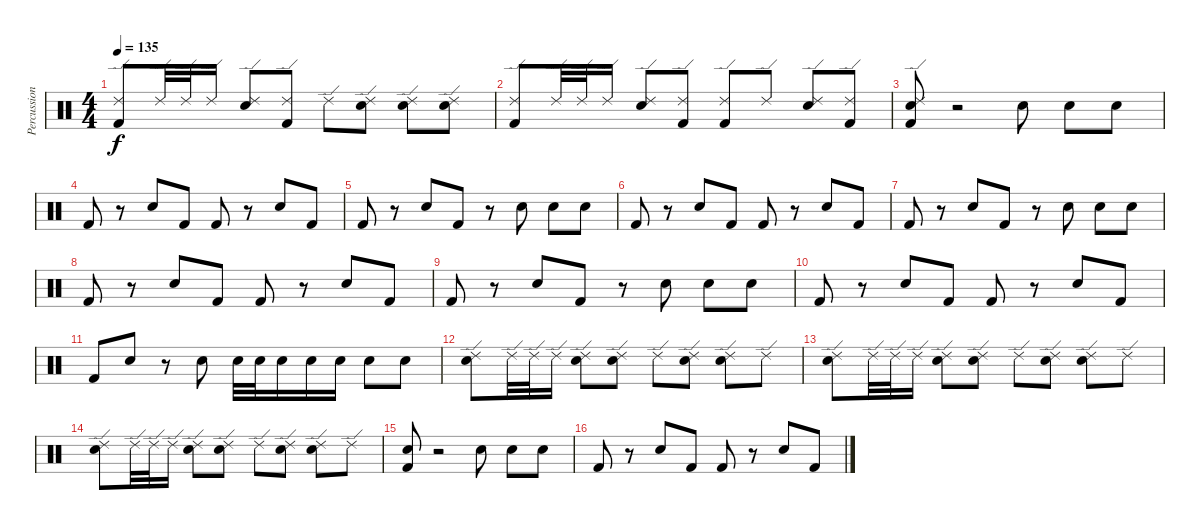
\track ("Percussions" "Percussion") {instrument percussion}
\staff {score}
\articulation defaults
\ts (4 4)
\tempo 135
\clef neutral
\ks c
("Kick (hit) 2" "Ride (edge) 2").8{dy f} "Ride (edge) 2".32 "Ride (edge) 2".32 "Ride (edge) 2".16 ("Snare (hit) 2" "Ride (edge) 2").8 ("Kick (hit) 2" "Ride (edge) 2").8 "Ride (edge) 2".8 ("Snare (hit) 2" "Ride (edge) 2").8 ("Snare (hit) 2" "Ride (edge) 2").8 ("Snare (hit) 2" "Ride (edge) 2").8 |
("Kick (hit) 2" "Ride (edge) 2").8 "Ride (edge) 2".32 "Ride (edge) 2".32 "Ride (edge) 2".16 ("Snare (hit) 2" "Ride (edge) 2").8 ("Kick (hit) 2" "Ride (edge) 2").8 ("Kick (hit) 2" "Ride (edge) 2").8 "Ride (edge) 2".8 ("Snare (hit) 2" "Ride (edge) 2").8 ("Kick (hit) 2" "Ride (edge) 2").8 |
("Snare (hit) 2" "Kick (hit) 2" "Ride (edge) 2").8 r.2 "Snare (hit) 2".8 "Snare (hit) 2".8 "Snare (hit) 2".8 |
"Kick (hit) 2".8 r.8 "Snare (hit) 2".8 "Kick (hit) 2".8 "Kick (hit) 2".8 r.8 "Snare (hit) 2".8 "Kick (hit) 2".8 |
"Kick (hit) 2".8 r.8 "Snare (hit) 2".8 "Kick (hit) 2".8 r.8 "Snare (hit) 2".8 "Snare (hit) 2".8 "Snare (hit) 2".8 |
"Kick (hit) 2".8 r.8 "Snare (hit) 2".8 "Kick (hit) 2".8 "Kick (hit) 2".8 r.8 "Snare (hit) 2".8 "Kick (hit) 2".8 |
"Kick (hit) 2".8 r.8 "Snare (hit) 2".8 "Kick (hit) 2".8 r.8 "Snare (hit) 2".8 "Snare (hit) 2".8 "Snare (hit) 2".8 |
"Kick (hit) 2".8 r.8 "Snare (hit) 2".8 "Kick (hit) 2".8 "Kick (hit) 2".8 r.8 "Snare (hit) 2".8 "Kick (hit) 2".8 |
"Kick (hit) 2".8 r.8 "Snare (hit) 2".8 "Kick (hit) 2".8 r.8 "Snare (hit) 2".8 "Snare (hit) 2".8 "Snare (hit) 2".8 |
"Kick (hit) 2".8 r.8 "Snare (hit) 2".8 "Kick (hit) 2".8 "Kick (hit) 2".8 r.8 "Snare (hit) 2".8 "Kick (hit) 2".8 |
"Kick (hit) 2".8 "Snare (hit) 2".8 r.8 "Snare (hit) 2".8 "Snare (hit) 2".32 "Snare (hit) 2".32 "Snare (hit) 2".16 "Snare (hit) 2".16 "Snare (hit) 2".16 "Snare (hit) 2".8 "Snare (hit) 2".8 |
("Snare (hit) 2" "Ride (edge) 2").8 "Ride (edge) 2".32 "Ride (edge) 2".32 "Ride (edge) 2".16 ("Snare (hit) 2" "Ride (edge) 2").8 ("Snare (hit) 2" "Ride (edge) 2").8 "Ride (edge) 2".8 ("Snare (hit) 2" "Ride (edge) 2").8 ("Snare (hit) 2" "Ride (edge) 2").8 "Ride (edge) 2".8 |
("Snare (hit) 2" "Ride (edge) 2").8 "Ride (edge) 2".32 "Ride (edge) 2".32 "Ride (edge) 2".16 ("Snare (hit) 2" "Ride (edge) 2").8 ("Snare (hit) 2" "Ride (edge) 2").8 "Ride (edge) 2".8 ("Snare (hit) 2" "Ride (edge) 2").8 ("Snare (hit) 2" "Ride (edge) 2").8 "Ride (edge) 2".8 |
("Snare (hit) 2" "Ride (edge) 2").8 "Ride (edge) 2".32 "Ride (edge) 2".32 "Ride (edge) 2".16 ("Snare (hit) 2" "Ride (edge) 2").8 ("Snare (hit) 2" "Ride (edge) 2").8 "Ride (edge) 2".8 ("Snare (hit) 2" "Ride (edge) 2").8 ("Snare (hit) 2" "Ride (edge) 2").8 "Ride (edge) 2".8 |
("Snare (hit) 2" "Kick (hit) 2").8 r.2 "Snare (hit) 2".8 "Snare (hit) 2".8 "Snare (hit) 2".8 |
"Kick (hit) 2".8 r.8 "Snare (hit) 2".8 "Kick (hit) 2".8 "Kick (hit) 2".8 r.8 "Snare (hit) 2".8 "Kick (hit) 2".8
